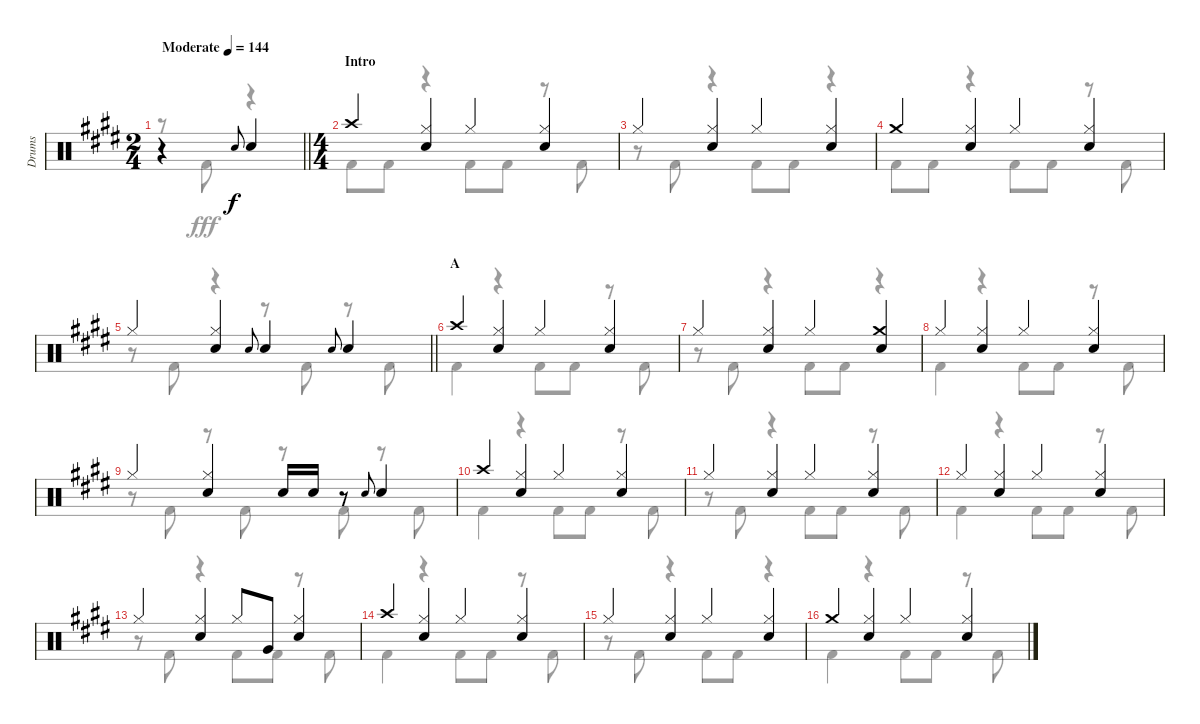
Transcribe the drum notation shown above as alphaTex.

\track ("Drums" "Drums") {instrument percussion}
\staff {score}
\articulation defaults
\voice
\ts (2 4)
\tempo (144 "Moderate")
\clef neutral
\barLineRight lightlight
\ks e
r.4{dy f} "Snare (hit) 2".8{gr onbeat} "Snare (hit) 2".4 |
\ts (4 4)
\section ("" "Intro")
"Crash high (hit)".4 ("Hi-Hat (closed)" "Snare (hit) 2").4 "Hi-Hat (closed)".4 ("Hi-Hat (closed)" "Snare (hit) 2").4 |
"Hi-Hat (closed)".4 ("Hi-Hat (closed)" "Snare (hit) 2").4 "Hi-Hat (closed)".4 ("Hi-Hat (closed)" "Snare (hit) 2").4 |
"Crash medium (hit)".4 ("Hi-Hat (closed)" "Snare (hit) 2").4 "Hi-Hat (closed)".4 ("Hi-Hat (closed)" "Snare (hit) 2").4 |
\barLineRight lightlight "Hi-Hat (closed)".4
("Hi-Hat (closed)" "Snare (hit) 2").4 "Snare (hit) 2".8{gr onbeat} "Snare (hit) 2".4 "Snare (hit) 2".8{gr onbeat} "Snare (hit) 2".4 |
\section ("" "A")
"Crash high (hit)".4 ("Hi-Hat (closed)" "Snare (hit) 2").4 "Hi-Hat (closed)".4 ("Hi-Hat (closed)" "Snare (hit) 2").4 |
"Hi-Hat (closed)".4 ("Hi-Hat (closed)" "Snare (hit) 2").4 "Hi-Hat (closed)".4 ("Crash medium (hit)" "Snare (hit) 2").4 |
"Hi-Hat (closed)".4 ("Hi-Hat (closed)" "Snare (hit) 2").4 "Hi-Hat (closed)".4 ("Hi-Hat (closed)" "Snare (hit) 2").4 |
"Hi-Hat (closed)".4 ("Hi-Hat (closed)" "Snare (hit) 2").4 "Snare (hit) 2".16 "Snare (hit) 2".16 r.8 "Snare (hit) 2".8{gr onbeat} "Snare (hit) 2".4 |
"Crash high (hit)".4 ("Hi-Hat (closed)" "Snare (hit) 2").4 "Hi-Hat (closed)".4 ("Hi-Hat (closed)" "Snare (hit) 2").4 |
"Hi-Hat (closed)".4 ("Hi-Hat (closed)" "Snare (hit) 2").4 "Hi-Hat (closed)".4 ("Hi-Hat (closed)" "Snare (hit) 2").4 |
"Hi-Hat (closed)".4 ("Hi-Hat (closed)" "Snare (hit) 2").4 "Hi-Hat (closed)".4 ("Hi-Hat (closed)" "Snare (hit) 2").4 |
"Hi-Hat (closed)".4 ("Hi-Hat (closed)" "Snare (hit) 2").4 "Hi-Hat (closed)".8 "Very Low Tom (hit)".8 ("Hi-Hat (closed)" "Snare (hit) 2").4 |
"Crash high (hit)".4 ("Hi-Hat (closed)" "Snare (hit) 2").4 "Hi-Hat (closed)".4 ("Hi-Hat (closed)" "Snare (hit) 2").4 |
"Hi-Hat (closed)".4 ("Hi-Hat (closed)" "Snare (hit) 2").4 "Hi-Hat (closed)".4 ("Hi-Hat (closed)" "Snare (hit) 2").4 |
"Crash medium (hit)".4 ("Hi-Hat (closed)" "Snare (hit) 2").4 "Hi-Hat (closed)".4 ("Hi-Hat (closed)" "Snare (hit) 2").4
\voice
\clef neutral
\ottava regular
\simile none
\barLineRight lightlight
\ks e
r.8{dy fff} "Kick (hit) 2".8 r.4 |
"Kick (hit) 2".8 "Kick (hit) 2".8 r.4 "Kick (hit) 2".8 "Kick (hit) 2".8 r.8 "Kick (hit) 2".8 |
r.8 "Kick (hit) 2".8 r.4 "Kick (hit) 2".8 "Kick (hit) 2".8 r.4 |
"Kick (hit) 2".8 "Kick (hit) 2".8 r.4 "Kick (hit) 2".8 "Kick (hit) 2".8 r.8 "Kick (hit) 2".8 |
\barLineRight lightlight
r.8 "Kick (hit) 2".8 r.4 r.8 "Kick (hit) 2".8 r.8 "Kick (hit) 2".8 |
"Kick (hit) 2".4 r.4 "Kick (hit) 2".8 "Kick (hit) 2".8 r.8 "Kick (hit) 2".8 |
r.8 "Kick (hit) 2".8 r.4 "Kick (hit) 2".8 "Kick (hit) 2".8 r.4 |
"Kick (hit) 2".4 r.4 "Kick (hit) 2".8 "Kick (hit) 2".8 r.8 "Kick (hit) 2".8 |
r.8 "Kick (hit) 2".8 r.8 "Kick (hit) 2".8 r.8 "Kick (hit) 2".8 r.8 "Kick (hit) 2".8 |
"Kick (hit) 2".4 r.4 "Kick (hit) 2".8 "Kick (hit) 2".8 r.8 "Kick (hit) 2".8 |
r.8 "Kick (hit) 2".8 r.4 "Kick (hit) 2".8 "Kick (hit) 2".8 r.8 "Kick (hit) 2".8 |
"Kick (hit) 2".4 r.4 "Kick (hit) 2".8 "Kick (hit) 2".8 r.8 "Kick (hit) 2".8 |
r.8 "Kick (hit) 2".8 r.4 "Kick (hit) 2".8 "Kick (hit) 2".8 r.8 "Kick (hit) 2".8 |
"Kick (hit) 2".4 r.4 "Kick (hit) 2".8 "Kick (hit) 2".8 r.8 "Kick (hit) 2".8 |
r.8 "Kick (hit) 2".8 r.4 "Kick (hit) 2".8 "Kick (hit) 2".8 r.4 |
"Kick (hit) 2".4 r.4 "Kick (hit) 2".8 "Kick (hit) 2".8 r.8 "Kick (hit) 2".8
